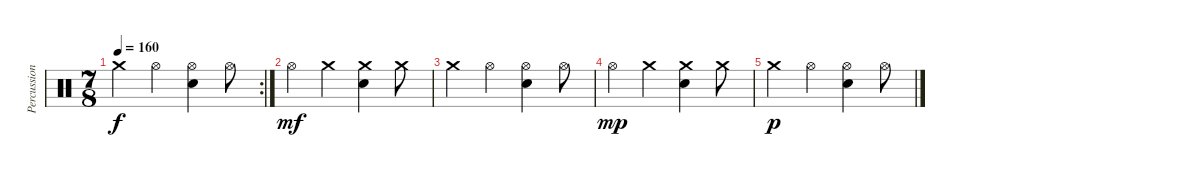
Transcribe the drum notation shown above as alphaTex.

\track ("Percussion" "Percussion") {instrument percussion}
\staff {score}
\articulation defaults
\rc 2
\ts (7 8)
\tempo 160
\clef neutral
\ks c "Crash medium (hit)".4{dy f} "Hi-Hat (open)".4
("Hi-Hat (open)" "Snare (hit) 2").4 "Hi-Hat (open)".8 |
"Hi-Hat (open)".4{dy mf} "Crash medium (hit)".4 ("Crash medium (hit)" "Snare (hit) 2").4 "Crash medium (hit)".8 |
"Crash medium (hit)".4 "Hi-Hat (open)".4 ("Hi-Hat (open)" "Snare (hit) 2").4 "Hi-Hat (open)".8 |
"Hi-Hat (open)".4{dy mp} "Crash medium (hit)".4 ("Crash medium (hit)" "Snare (hit) 2").4 "Crash medium (hit)".8 |
"Crash medium (hit)".4{dy p} "Hi-Hat (open)".4 ("Hi-Hat (open)" "Snare (hit) 2").4 "Hi-Hat (open)".8
